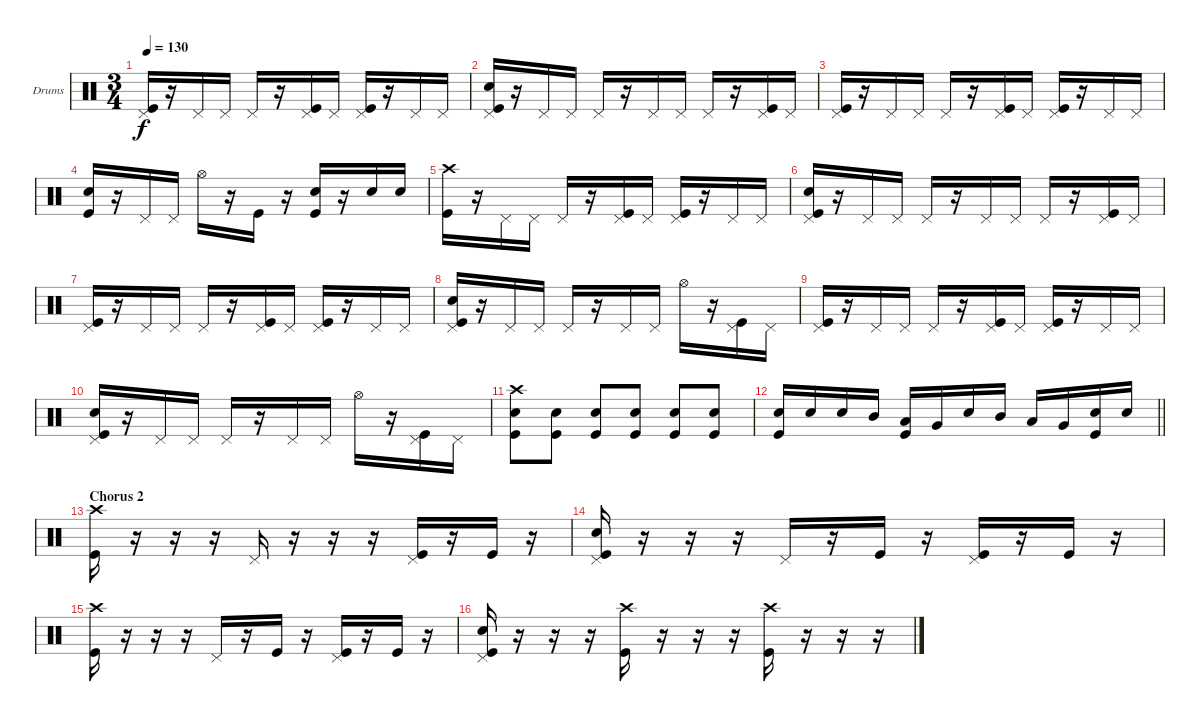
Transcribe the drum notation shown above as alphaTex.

\bracketExtendMode groupsimilarinstruments
\firstSystemTrackNameOrientation horizontal
\otherSystemsTrackNameOrientation horizontal
\track ("Drumkit" "Drums") {instrument percussion}
\staff {score}
\articulation defaults
\ts (3 4)
\tempo 130
\clef neutral
\ks c
("Kick (hit)" "Pedal Hi-Hat (hit)").16{dy f} r.16 "Pedal Hi-Hat (hit)".16 "Pedal Hi-Hat (hit)".16 "Pedal Hi-Hat (hit)".16 r.16 ("Kick (hit)" "Pedal Hi-Hat (hit)").16 "Pedal Hi-Hat (hit)".16 ("Kick (hit)" "Pedal Hi-Hat (hit)").16 r.16 "Pedal Hi-Hat (hit)".16 "Pedal Hi-Hat (hit)".16 |
("Kick (hit)" "Snare (hit) 2" "Pedal Hi-Hat (hit)").16 r.16 "Pedal Hi-Hat (hit)".16 "Pedal Hi-Hat (hit)".16 "Pedal Hi-Hat (hit)".16 r.16 "Pedal Hi-Hat (hit)".16 "Pedal Hi-Hat (hit)".16 "Pedal Hi-Hat (hit)".16 r.16 ("Kick (hit)" "Pedal Hi-Hat (hit)").16 "Pedal Hi-Hat (hit)".16 |
("Kick (hit)" "Pedal Hi-Hat (hit)").16 r.16 "Pedal Hi-Hat (hit)".16 "Pedal Hi-Hat (hit)".16 "Pedal Hi-Hat (hit)".16 r.16 ("Kick (hit)" "Pedal Hi-Hat (hit)").16 "Pedal Hi-Hat (hit)".16 ("Kick (hit)" "Pedal Hi-Hat (hit)").16 r.16 "Pedal Hi-Hat (hit)".16 "Pedal Hi-Hat (hit)".16 |
("Kick (hit)" "Snare (hit) 2").16 r.16 "Pedal Hi-Hat (hit)".16 "Pedal Hi-Hat (hit)".16 "Hi-Hat (open)".16 r.16 "Kick (hit)".16 r.16 ("Kick (hit)" "Snare (hit) 2").16 r.16 "Snare (hit) 2".16 "Snare (hit) 2".16 |
("Kick (hit)" "Crash high (hit)").16 r.16 "Pedal Hi-Hat (hit)".16 "Pedal Hi-Hat (hit)".16 "Pedal Hi-Hat (hit)".16 r.16 ("Kick (hit)" "Pedal Hi-Hat (hit)").16 "Pedal Hi-Hat (hit)".16 ("Kick (hit)" "Pedal Hi-Hat (hit)").16 r.16 "Pedal Hi-Hat (hit)".16 "Pedal Hi-Hat (hit)".16 |
("Kick (hit)" "Snare (hit) 2" "Pedal Hi-Hat (hit)").16 r.16 "Pedal Hi-Hat (hit)".16 "Pedal Hi-Hat (hit)".16 "Pedal Hi-Hat (hit)".16 r.16 "Pedal Hi-Hat (hit)".16 "Pedal Hi-Hat (hit)".16 "Pedal Hi-Hat (hit)".16 r.16 ("Kick (hit)" "Pedal Hi-Hat (hit)").16 "Pedal Hi-Hat (hit)".16 |
("Kick (hit)" "Pedal Hi-Hat (hit)").16 r.16 "Pedal Hi-Hat (hit)".16 "Pedal Hi-Hat (hit)".16 "Pedal Hi-Hat (hit)".16 r.16 ("Kick (hit)" "Pedal Hi-Hat (hit)").16 "Pedal Hi-Hat (hit)".16 ("Kick (hit)" "Pedal Hi-Hat (hit)").16 r.16 "Pedal Hi-Hat (hit)".16 "Pedal Hi-Hat (hit)".16 |
("Kick (hit)" "Snare (hit) 2" "Pedal Hi-Hat (hit)").16 r.16 "Pedal Hi-Hat (hit)".16 "Pedal Hi-Hat (hit)".16 "Pedal Hi-Hat (hit)".16 r.16 "Pedal Hi-Hat (hit)".16 "Pedal Hi-Hat (hit)".16 "Hi-Hat (open)".16 r.16 ("Kick (hit)" "Pedal Hi-Hat (hit)").16 "Pedal Hi-Hat (hit)".16 |
("Kick (hit)" "Pedal Hi-Hat (hit)").16 r.16 "Pedal Hi-Hat (hit)".16 "Pedal Hi-Hat (hit)".16 "Pedal Hi-Hat (hit)".16 r.16 ("Kick (hit)" "Pedal Hi-Hat (hit)").16 "Pedal Hi-Hat (hit)".16 ("Kick (hit)" "Pedal Hi-Hat (hit)").16 r.16 "Pedal Hi-Hat (hit)".16 "Pedal Hi-Hat (hit)".16 |
("Kick (hit)" "Snare (hit) 2" "Pedal Hi-Hat (hit)").16 r.16 "Pedal Hi-Hat (hit)".16 "Pedal Hi-Hat (hit)".16 "Pedal Hi-Hat (hit)".16 r.16 "Pedal Hi-Hat (hit)".16 "Pedal Hi-Hat (hit)".16 "Hi-Hat (open)".16 r.16 ("Kick (hit)" "Pedal Hi-Hat (hit)").16 "Pedal Hi-Hat (hit)".16 |
("Kick (hit)" "Snare (hit) 2" "Crash high (hit)").8 ("Kick (hit)" "Snare (hit) 2").8 ("Kick (hit)" "Snare (hit) 2").8 ("Kick (hit)" "Snare (hit) 2").8 ("Kick (hit)" "Snare (hit) 2").8 ("Kick (hit)" "Snare (hit) 2").8 |
\barLineRight lightlight
("Kick (hit)" "Snare (hit) 2").16 "Snare (hit) 2".16 "Snare (hit) 2".16 "Mid Tom (hit)".16 ("Kick (hit)" "Low Tom (hit)").16 "Very Low Tom (hit)".16 "Snare (hit) 2".16 "Mid Tom (hit)".16 "Low Tom (hit)".16 "Very Low Tom (hit)".16 ("Kick (hit)" "Snare (hit) 2").16 "Snare (hit) 2".16 |
\section ("" "Chorus 2")
("Kick (hit)" "Crash high (hit)").16 r.16 r.16 r.16 "Pedal Hi-Hat (hit)".16 r.16 r.16 r.16 ("Kick (hit)" "Pedal Hi-Hat (hit)").16 r.16 "Kick (hit)".16 r.16 |
("Kick (hit)" "Snare (hit) 2" "Pedal Hi-Hat (hit)").16 r.16 r.16 r.16 "Pedal Hi-Hat (hit)".16 r.16 "Kick (hit)".16 r.16 ("Kick (hit)" "Pedal Hi-Hat (hit)").16 r.16 "Kick (hit)".16 r.16 |
("Kick (hit)" "Crash high (hit)").16 r.16 r.16 r.16 "Pedal Hi-Hat (hit)".16 r.16 "Kick (hit)".16 r.16 ("Kick (hit)" "Pedal Hi-Hat (hit)").16 r.16 "Kick (hit)".16 r.16 |
("Kick (hit)" "Snare (hit) 2" "Pedal Hi-Hat (hit)").16 r.16 r.16 r.16 ("Kick (hit)" "Crash high (hit)").16 r.16 r.16 r.16 ("Kick (hit)" "Crash high (hit)").16 r.16 r.16 r.16
